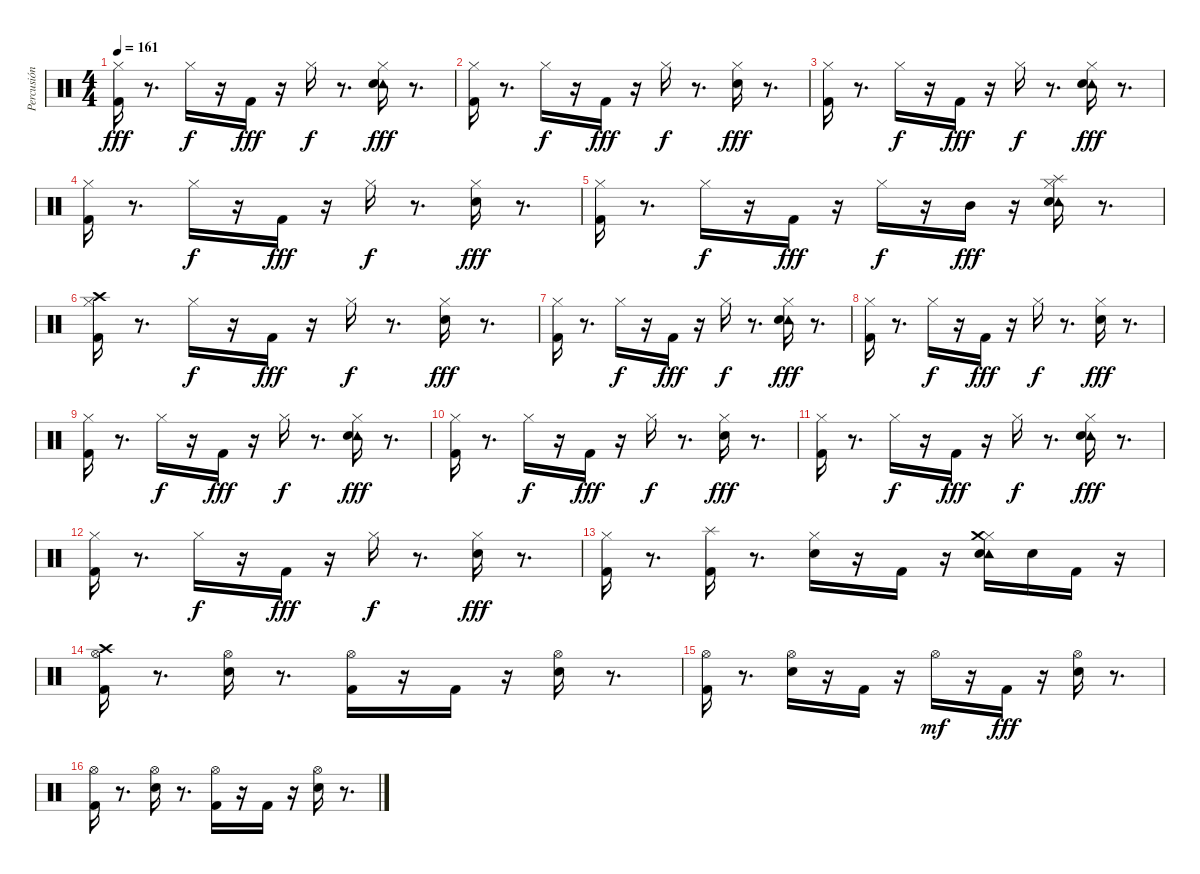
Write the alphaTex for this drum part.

\track ("Percusión" "Percusión") {instrument percussion}
\staff {score}
\articulation defaults
\ts (4 4)
\tempo 161
\clef neutral
\ks c
("Hi-Hat (closed)" "Kick (hit) 2").16{dy fff} r.8{d} "Hi-Hat (closed)".16{dy f} r.16 "Kick (hit) 2".16{dy fff} r.16 "Hi-Hat (closed)".16{dy f} r.8{d} ("Hi-Hat (closed)" "Tambourine (hit)" "Snare (hit) 2").16{dy fff} r.8{d} |
("Hi-Hat (closed)" "Kick (hit) 2").16 r.8{d} "Hi-Hat (closed)".16{dy f} r.16 "Kick (hit) 2".16{dy fff} r.16 "Hi-Hat (closed)".16{dy f} r.8{d} ("Hi-Hat (closed)" "Snare (hit) 2").16{dy fff} r.8{d} |
("Hi-Hat (closed)" "Kick (hit) 2").16 r.8{d} "Hi-Hat (closed)".16{dy f} r.16 "Kick (hit) 2".16{dy fff} r.16 "Hi-Hat (closed)".16{dy f} r.8{d} ("Hi-Hat (closed)" "Tambourine (hit)" "Snare (hit) 2").16{dy fff} r.8{d} |
("Hi-Hat (closed)" "Kick (hit) 2").16 r.8{d} "Hi-Hat (closed)".16{dy f} r.16 "Kick (hit) 2".16{dy fff} r.16 "Hi-Hat (closed)".16{dy f} r.8{d} ("Hi-Hat (closed)" "Snare (hit) 2").16{dy fff} r.8{d} |
("Hi-Hat (closed)" "Kick (hit) 2").16 r.8{d} "Hi-Hat (closed)".16{dy f} r.16 "Kick (hit) 2".16{dy fff} r.16 "Hi-Hat (closed)".16{dy f} r.16 "Mid Tom (hit)".16{dy fff} r.16 ("Hi-Hat (closed)" "Splash (hit)" "Tambourine (hit)" "Snare (hit) 2").16 r.8{d} |
("Hi-Hat (closed)" "Crash high (hit)" "Kick (hit) 2").16 r.8{d} "Hi-Hat (closed)".16{dy f} r.16 "Kick (hit) 2".16{dy fff} r.16 "Hi-Hat (closed)".16{dy f} r.8{d} ("Hi-Hat (closed)" "Snare (hit) 2").16{dy fff} r.8{d} |
("Hi-Hat (closed)" "Kick (hit) 2").16 r.8{d} "Hi-Hat (closed)".16{dy f} r.16 "Kick (hit) 2".16{dy fff} r.16 "Hi-Hat (closed)".16{dy f} r.8{d} ("Hi-Hat (closed)" "Tambourine (hit)" "Snare (hit) 2").16{dy fff} r.8{d} |
("Hi-Hat (closed)" "Kick (hit) 2").16 r.8{d} "Hi-Hat (closed)".16{dy f} r.16 "Kick (hit) 2".16{dy fff} r.16 "Hi-Hat (closed)".16{dy f} r.8{d} ("Hi-Hat (closed)" "Snare (hit) 2").16{dy fff} r.8{d} |
("Hi-Hat (closed)" "Kick (hit) 2").16 r.8{d} "Hi-Hat (closed)".16{dy f} r.16 "Kick (hit) 2".16{dy fff} r.16 "Hi-Hat (closed)".16{dy f} r.8{d} ("Hi-Hat (closed)" "Tambourine (hit)" "Snare (hit) 2").16{dy fff} r.8{d} |
("Hi-Hat (closed)" "Kick (hit) 2").16 r.8{d} "Hi-Hat (closed)".16{dy f} r.16 "Kick (hit) 2".16{dy fff} r.16 "Hi-Hat (closed)".16{dy f} r.8{d} ("Hi-Hat (closed)" "Snare (hit) 2").16{dy fff} r.8{d} |
("Hi-Hat (closed)" "Kick (hit) 2").16 r.8{d} "Hi-Hat (closed)".16{dy f} r.16 "Kick (hit) 2".16{dy fff} r.16 "Hi-Hat (closed)".16{dy f} r.8{d} ("Hi-Hat (closed)" "Tambourine (hit)" "Snare (hit) 2").16{dy fff} r.8{d} |
("Hi-Hat (closed)" "Kick (hit) 2").16 r.8{d} "Hi-Hat (closed)".16{dy f} r.16 "Kick (hit) 2".16{dy fff} r.16 "Hi-Hat (closed)".16{dy f} r.8{d} ("Hi-Hat (closed)" "Snare (hit) 2").16{dy fff} r.8{d} |
("Hi-Hat (closed)" "Kick (hit) 2").16 r.8{d} ("Splash (hit)" "Kick (hit) 2").16 r.8{d} ("Hi-Hat (closed)" "Snare (hit) 2").16 r.16 "Kick (hit) 2".16 r.16 ("Hi-Hat (closed)" "Crash medium (hit)" "Tambourine (hit)" "Snare (hit) 2").16 "Snare (hit) 2".16 "Kick (hit) 2".16 r.16 |
("Hi-Hat (open)" "Crash high (hit)" "Kick (hit) 2").16 r.8{d} ("Hi-Hat (open)" "Snare (hit) 2").16 r.8{d} ("Hi-Hat (open)" "Kick (hit) 2").16 r.16 "Kick (hit) 2".16 r.16 ("Hi-Hat (open)" "Snare (hit) 2").16 r.8{d} |
("Hi-Hat (open)" "Kick (hit) 2").16 r.8{d} ("Hi-Hat (open)" "Snare (hit) 2").16 r.16 "Kick (hit) 2".16 r.16 "Hi-Hat (open)".16{dy mf} r.16 "Kick (hit) 2".16{dy fff} r.16 ("Hi-Hat (open)" "Snare (hit) 2").16 r.8{d} |
("Hi-Hat (open)" "Kick (hit) 2").16 r.8{d} ("Hi-Hat (open)" "Snare (hit) 2").16 r.8{d} ("Hi-Hat (open)" "Kick (hit) 2").16 r.16 "Kick (hit) 2".16 r.16 ("Hi-Hat (open)" "Snare (hit) 2").16 r.8{d}
